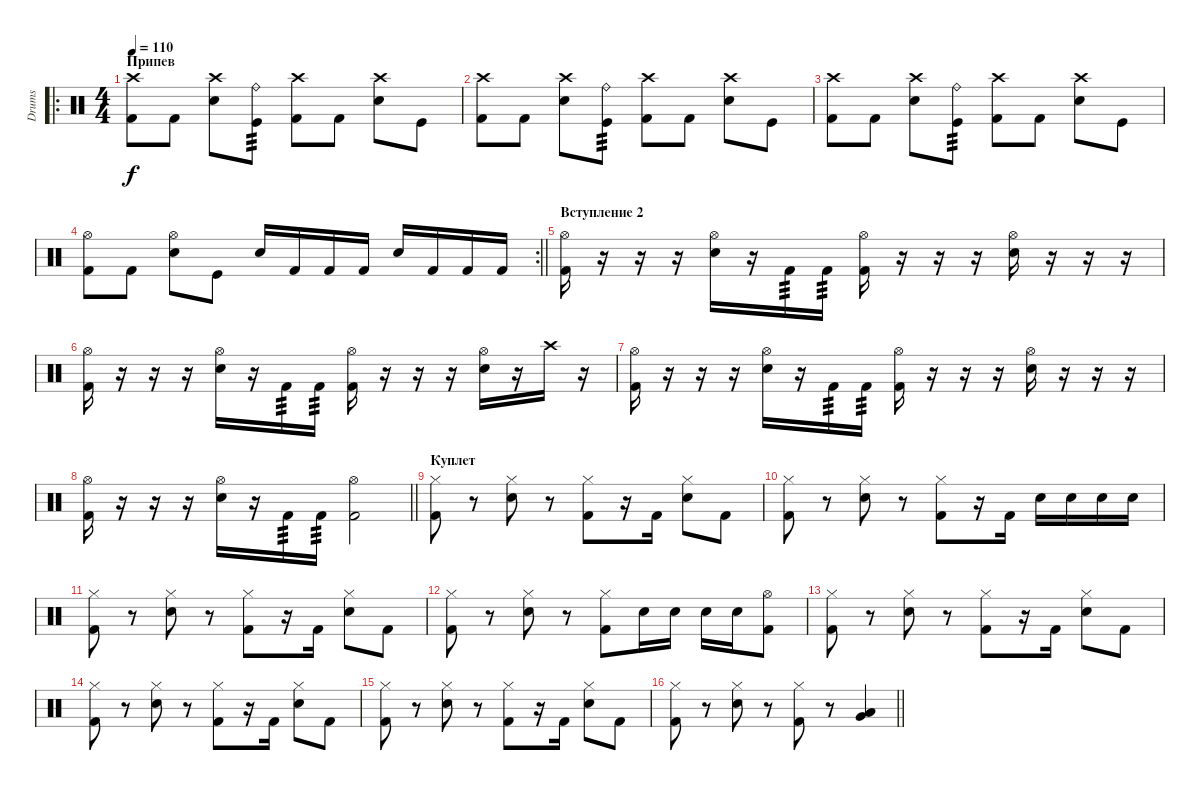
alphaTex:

\track ("Drums" "Drums") {instrument percussion}
\staff {score}
\articulation defaults
\ro
\ts (4 4)
\section ("" "Припев")
\tempo 110
\clef neutral
\ks c
("Crash high (hit)" "Kick (hit) 2").8{dy f} "Kick (hit) 2".8 ("Crash high (hit)" "Electric Snare (hit)").8 ("Ride (bell)" "Kick (hit)").8{tp 3} ("Crash high (hit)" "Kick (hit) 2").8 "Kick (hit) 2".8 ("Crash high (hit)" "Electric Snare (hit)").8 "Kick (hit)".8 |
("Crash high (hit)" "Kick (hit) 2").8 "Kick (hit) 2".8 ("Crash high (hit)" "Electric Snare (hit)").8 ("Ride (bell)" "Kick (hit)").8{tp 3} ("Crash high (hit)" "Kick (hit) 2").8 "Kick (hit) 2".8 ("Crash high (hit)" "Electric Snare (hit)").8 "Kick (hit)".8 |
("Crash high (hit)" "Kick (hit) 2").8 "Kick (hit) 2".8 ("Crash high (hit)" "Electric Snare (hit)").8 ("Ride (bell)" "Kick (hit)").8{tp 3} ("Crash high (hit)" "Kick (hit) 2").8 "Kick (hit) 2".8 ("Crash high (hit)" "Electric Snare (hit)").8 "Kick (hit)".8 |
\rc 2
\barLineRight lightlight
("Hi-Hat (open)" "Kick (hit) 2").8 "Kick (hit) 2".8 ("Hi-Hat (open)" "Electric Snare (hit)").8 "Kick (hit)".8 "Electric Snare (hit)".16 "Kick (hit) 2".16 "Kick (hit) 2".16 "Kick (hit) 2".16 "Electric Snare (hit)".16 "Kick (hit) 2".16 "Kick (hit) 2".16 "Kick (hit) 2".16 |
\section ("" "Вступление 2")
("Hi-Hat (open)" "Kick (hit) 2").16 r.16 r.16 r.16 ("Hi-Hat (open)" "Electric Snare (hit)").16 r.16 "Kick (hit) 2".16{tp 3} "Kick (hit) 2".16{tp 3} ("Hi-Hat (open)" "Kick (hit) 2").16 r.16 r.16 r.16 ("Hi-Hat (open)" "Electric Snare (hit)").16 r.16 r.16 r.16 |
("Hi-Hat (open)" "Kick (hit) 2").16 r.16 r.16 r.16 ("Hi-Hat (open)" "Electric Snare (hit)").16 r.16 "Kick (hit) 2".16{tp 3} "Kick (hit) 2".16{tp 3} ("Hi-Hat (open)" "Kick (hit) 2").16 r.16 r.16 r.16 ("Hi-Hat (open)" "Electric Snare (hit)").16 r.16 "Crash high (hit)".16 r.16 |
("Hi-Hat (open)" "Kick (hit) 2").16 r.16 r.16 r.16 ("Hi-Hat (open)" "Electric Snare (hit)").16 r.16 "Kick (hit) 2".16{tp 3} "Kick (hit) 2".16{tp 3} ("Hi-Hat (open)" "Kick (hit) 2").16 r.16 r.16 r.16 ("Hi-Hat (open)" "Electric Snare (hit)").16 r.16 r.16 r.16 |
\barLineRight lightlight
("Hi-Hat (open)" "Kick (hit) 2").16 r.16 r.16 r.16 ("Hi-Hat (open)" "Electric Snare (hit)").16 r.16 "Kick (hit) 2".16{tp 3} "Kick (hit) 2".16{tp 3} ("Hi-Hat (open)" "Kick (hit) 2").2 |
\section ("" "Куплет")
("Hi-Hat (closed)" "Kick (hit) 2").8 r.8 ("Hi-Hat (closed)" "Electric Snare (hit)").8 r.8 ("Hi-Hat (closed)" "Kick (hit) 2").8 r.16 "Kick (hit) 2".16 ("Hi-Hat (closed)" "Electric Snare (hit)").8 "Kick (hit) 2".8 |
("Hi-Hat (closed)" "Kick (hit) 2").8 r.8 ("Hi-Hat (closed)" "Electric Snare (hit)").8 r.8 ("Hi-Hat (closed)" "Kick (hit) 2").8 r.16 "Kick (hit) 2".16 "Electric Snare (hit)".16 "Electric Snare (hit)".16 "Electric Snare (hit)".16 "Electric Snare (hit)".16 |
("Hi-Hat (closed)" "Kick (hit) 2").8 r.8 ("Hi-Hat (closed)" "Electric Snare (hit)").8 r.8 ("Hi-Hat (closed)" "Kick (hit) 2").8 r.16 "Kick (hit) 2".16 ("Hi-Hat (closed)" "Electric Snare (hit)").8 "Kick (hit) 2".8 |
("Hi-Hat (closed)" "Kick (hit) 2").8 r.8 ("Hi-Hat (closed)" "Electric Snare (hit)").8 r.8 ("Hi-Hat (closed)" "Kick (hit) 2").8 "Electric Snare (hit)".16 "Electric Snare (hit)".16 "Electric Snare (hit)".16 "Electric Snare (hit)".16 ("Hi-Hat (open)" "Kick (hit) 2").8 |
("Hi-Hat (closed)" "Kick (hit) 2").8 r.8 ("Hi-Hat (closed)" "Electric Snare (hit)").8 r.8 ("Hi-Hat (closed)" "Kick (hit) 2").8 r.16 "Kick (hit) 2".16 ("Hi-Hat (closed)" "Electric Snare (hit)").8 "Kick (hit) 2".8 |
("Hi-Hat (closed)" "Kick (hit) 2").8 r.8 ("Hi-Hat (closed)" "Electric Snare (hit)").8 r.8 ("Hi-Hat (closed)" "Kick (hit) 2").8 r.16 "Kick (hit) 2".16 ("Hi-Hat (closed)" "Electric Snare (hit)").8 "Kick (hit) 2".8 |
("Hi-Hat (closed)" "Kick (hit) 2").8 r.8 ("Hi-Hat (closed)" "Electric Snare (hit)").8 r.8 ("Hi-Hat (closed)" "Kick (hit) 2").8 r.16 "Kick (hit) 2".16 ("Hi-Hat (closed)" "Electric Snare (hit)").8 "Kick (hit) 2".8 |
\barLineRight lightlight
("Hi-Hat (closed)" "Kick (hit) 2").8 r.8 ("Hi-Hat (closed)" "Electric Snare (hit)").8 r.8 ("Hi-Hat (closed)" "Kick (hit) 2").8 r.8 ("Low Floor Tom (hit)" "Very Low Tom (hit)").4
